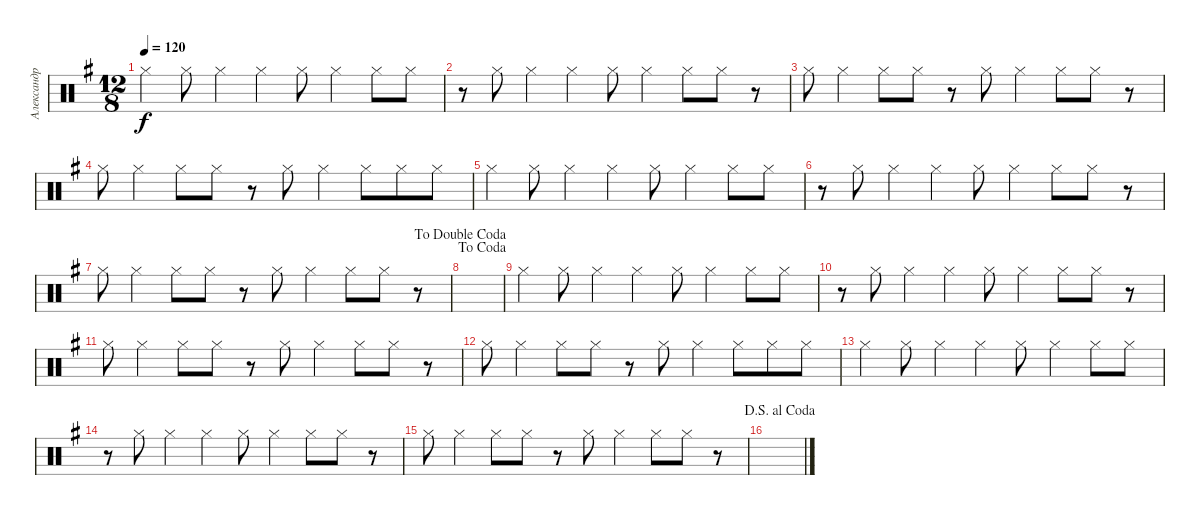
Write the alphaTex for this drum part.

\track ("Александр Манякин" "Александр ") {instrument percussion}
\staff {score}
\articulation defaults
\ts (12 8)
\tempo 120
\clef neutral
\ks g "Hi-Hat (closed)".4{dy f} "Hi-Hat (closed)".8 "Hi-Hat (closed)".4 "Hi-Hat (closed)".4 "Hi-Hat (closed)".8 "Hi-Hat (closed)".4 "Hi-Hat (closed)".8 "Hi-Hat (closed)".8
|
r.8 "Hi-Hat (closed)".8 "Hi-Hat (closed)".4 "Hi-Hat (closed)".4 "Hi-Hat (closed)".8 "Hi-Hat (closed)".4 "Hi-Hat (closed)".8 "Hi-Hat (closed)".8 r.8 |
"Hi-Hat (closed)".8 "Hi-Hat (closed)".4 "Hi-Hat (closed)".8 "Hi-Hat (closed)".8 r.8 "Hi-Hat (closed)".8 "Hi-Hat (closed)".4 "Hi-Hat (closed)".8 "Hi-Hat (closed)".8 r.8 |
"Hi-Hat (closed)".8 "Hi-Hat (closed)".4 "Hi-Hat (closed)".8 "Hi-Hat (closed)".8 r.8 "Hi-Hat (closed)".8 "Hi-Hat (closed)".4 "Hi-Hat (closed)".8 "Hi-Hat (closed)".8 "Hi-Hat (closed)".8 |
"Hi-Hat (closed)".4 "Hi-Hat (closed)".8 "Hi-Hat (closed)".4 "Hi-Hat (closed)".4 "Hi-Hat (closed)".8 "Hi-Hat (closed)".4 "Hi-Hat (closed)".8 "Hi-Hat (closed)".8 |
r.8 "Hi-Hat (closed)".8 "Hi-Hat (closed)".4 "Hi-Hat (closed)".4 "Hi-Hat (closed)".8 "Hi-Hat (closed)".4 "Hi-Hat (closed)".8 "Hi-Hat (closed)".8 r.8 |
"Hi-Hat (closed)".8 "Hi-Hat (closed)".4 "Hi-Hat (closed)".8 "Hi-Hat (closed)".8 r.8 "Hi-Hat (closed)".8 "Hi-Hat (closed)".4 "Hi-Hat (closed)".8 "Hi-Hat (closed)".8 r.8 |
\jump dacoda
\jump dadoublecoda
|
"Hi-Hat (closed)".4 "Hi-Hat (closed)".8 "Hi-Hat (closed)".4 "Hi-Hat (closed)".4 "Hi-Hat (closed)".8 "Hi-Hat (closed)".4 "Hi-Hat (closed)".8 "Hi-Hat (closed)".8 |
r.8 "Hi-Hat (closed)".8 "Hi-Hat (closed)".4 "Hi-Hat (closed)".4 "Hi-Hat (closed)".8 "Hi-Hat (closed)".4 "Hi-Hat (closed)".8 "Hi-Hat (closed)".8 r.8 |
"Hi-Hat (closed)".8 "Hi-Hat (closed)".4 "Hi-Hat (closed)".8 "Hi-Hat (closed)".8 r.8 "Hi-Hat (closed)".8 "Hi-Hat (closed)".4 "Hi-Hat (closed)".8 "Hi-Hat (closed)".8 r.8 |
"Hi-Hat (closed)".8 "Hi-Hat (closed)".4 "Hi-Hat (closed)".8 "Hi-Hat (closed)".8 r.8 "Hi-Hat (closed)".8 "Hi-Hat (closed)".4 "Hi-Hat (closed)".8 "Hi-Hat (closed)".8 "Hi-Hat (closed)".8 |
"Hi-Hat (closed)".4 "Hi-Hat (closed)".8 "Hi-Hat (closed)".4 "Hi-Hat (closed)".4 "Hi-Hat (closed)".8 "Hi-Hat (closed)".4 "Hi-Hat (closed)".8 "Hi-Hat (closed)".8 |
r.8 "Hi-Hat (closed)".8 "Hi-Hat (closed)".4 "Hi-Hat (closed)".4 "Hi-Hat (closed)".8 "Hi-Hat (closed)".4 "Hi-Hat (closed)".8 "Hi-Hat (closed)".8 r.8 |
"Hi-Hat (closed)".8 "Hi-Hat (closed)".4 "Hi-Hat (closed)".8 "Hi-Hat (closed)".8 r.8 "Hi-Hat (closed)".8 "Hi-Hat (closed)".4 "Hi-Hat (closed)".8 "Hi-Hat (closed)".8 r.8 |
\jump dalsegnoalcoda
